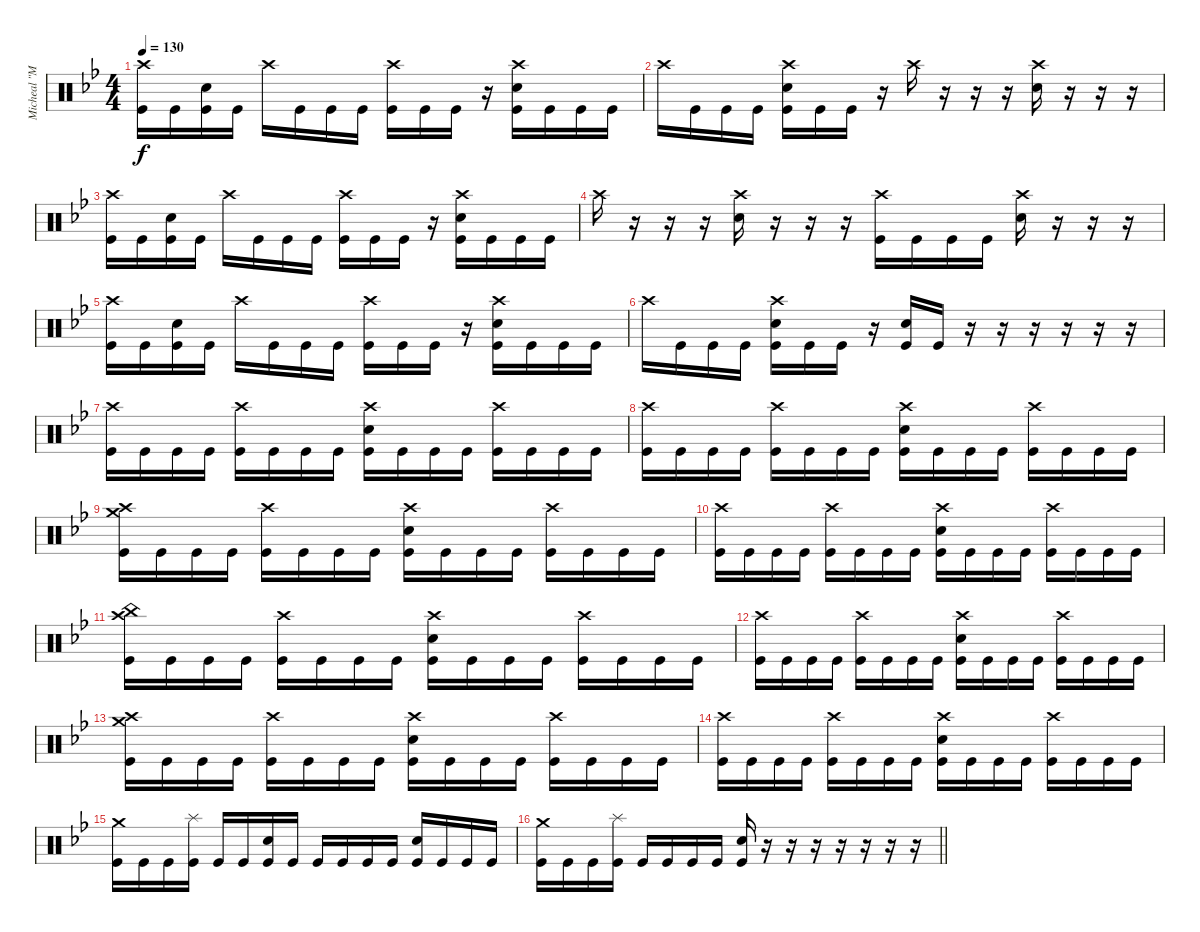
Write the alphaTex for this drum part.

\track ("Micheal \"Moose\" Thomas" "Micheal \"M") {instrument percussion}
\staff {score}
\articulation defaults
\ts (4 4)
\tempo 130
\clef neutral
\ks bb
("Crash high (hit)" "Kick (hit)").16{dy f} "Kick (hit)".16 ("Snare (hit) 2" "Kick (hit)").16 "Kick (hit)".16 "Crash high (hit)".16 "Kick (hit)".16 "Kick (hit)".16 "Kick (hit)".16 ("Crash high (hit)" "Kick (hit)").16 "Kick (hit)".16 "Kick (hit)".16 r.16 ("Crash high (hit)" "Snare (hit) 2" "Kick (hit)").16 "Kick (hit)".16 "Kick (hit)".16 "Kick (hit)".16 |
"Crash high (hit)".16 "Kick (hit)".16 "Kick (hit)".16 "Kick (hit)".16 ("Crash high (hit)" "Snare (hit) 2" "Kick (hit)").16 "Kick (hit)".16 "Kick (hit)".16 r.16 "Crash high (hit)".16 r.16 r.16 r.16 ("Crash high (hit)" "Snare (hit) 2").16 r.16 r.16 r.16 |
("Crash high (hit)" "Kick (hit)").16 "Kick (hit)".16 ("Snare (hit) 2" "Kick (hit)").16 "Kick (hit)".16 "Crash high (hit)".16 "Kick (hit)".16 "Kick (hit)".16 "Kick (hit)".16 ("Crash high (hit)" "Kick (hit)").16 "Kick (hit)".16 "Kick (hit)".16 r.16 ("Crash high (hit)" "Snare (hit) 2" "Kick (hit)").16 "Kick (hit)".16 "Kick (hit)".16 "Kick (hit)".16 |
"Crash high (hit)".16 r.16 r.16 r.16 ("Crash high (hit)" "Snare (hit) 2").16 r.16 r.16 r.16 ("Crash high (hit)" "Kick (hit)").16 "Kick (hit)".16 "Kick (hit)".16 "Kick (hit)".16 ("Crash high (hit)" "Snare (hit) 2").16 r.16 r.16 r.16 |
("Crash high (hit)" "Kick (hit)").16 "Kick (hit)".16 ("Snare (hit) 2" "Kick (hit)").16 "Kick (hit)".16 "Crash high (hit)".16 "Kick (hit)".16 "Kick (hit)".16 "Kick (hit)".16 ("Crash high (hit)" "Kick (hit)").16 "Kick (hit)".16 "Kick (hit)".16 r.16 ("Crash high (hit)" "Snare (hit) 2" "Kick (hit)").16 "Kick (hit)".16 "Kick (hit)".16 "Kick (hit)".16 |
"Crash high (hit)".16 "Kick (hit)".16 "Kick (hit)".16 "Kick (hit)".16 ("Crash high (hit)" "Snare (hit) 2" "Kick (hit)").16 "Kick (hit)".16 "Kick (hit)".16 r.16 ("Snare (hit) 2" "Kick (hit)").16 "Kick (hit)".16 r.16 r.16 r.16 r.16 r.16 r.16 |
("Crash high (hit)" "Kick (hit)").16 "Kick (hit)".16 "Kick (hit)".16 "Kick (hit)".16 ("Crash high (hit)" "Kick (hit)").16 "Kick (hit)".16 "Kick (hit)".16 "Kick (hit)".16 ("Crash high (hit)" "Snare (hit) 2" "Kick (hit)").16 "Kick (hit)".16 "Kick (hit)".16 "Kick (hit)".16 ("Crash high (hit)" "Kick (hit)").16 "Kick (hit)".16 "Kick (hit)".16 "Kick (hit)".16 |
("Crash high (hit)" "Kick (hit)").16 "Kick (hit)".16 "Kick (hit)".16 "Kick (hit)".16 ("Crash high (hit)" "Kick (hit)").16 "Kick (hit)".16 "Kick (hit)".16 "Kick (hit)".16 ("Crash high (hit)" "Snare (hit) 2" "Kick (hit)").16 "Kick (hit)".16 "Kick (hit)".16 "Kick (hit)".16 ("Crash high (hit)" "Kick (hit)").16 "Kick (hit)".16 "Kick (hit)".16 "Kick (hit)".16 |
("Crash high (hit)" "Crash medium (hit)" "Kick (hit)").16 "Kick (hit)".16 "Kick (hit)".16 "Kick (hit)".16 ("Crash high (hit)" "Kick (hit)").16 "Kick (hit)".16 "Kick (hit)".16 "Kick (hit)".16 ("Crash high (hit)" "Snare (hit) 2" "Kick (hit)").16 "Kick (hit)".16 "Kick (hit)".16 "Kick (hit)".16 ("Crash high (hit)" "Kick (hit)").16 "Kick (hit)".16 "Kick (hit)".16 "Kick (hit)".16 |
("Crash high (hit)" "Kick (hit)").16 "Kick (hit)".16 "Kick (hit)".16 "Kick (hit)".16 ("Crash high (hit)" "Kick (hit)").16 "Kick (hit)".16 "Kick (hit)".16 "Kick (hit)".16 ("Crash high (hit)" "Snare (hit) 2" "Kick (hit)").16 "Kick (hit)".16 "Kick (hit)".16 "Kick (hit)".16 ("Crash high (hit)" "Kick (hit)").16 "Kick (hit)".16 "Kick (hit)".16 "Kick (hit)".16 |
("Crash high (hit)" "China (hit)" "Kick (hit)").16 "Kick (hit)".16 "Kick (hit)".16 "Kick (hit)".16 ("Crash high (hit)" "Kick (hit)").16 "Kick (hit)".16 "Kick (hit)".16 "Kick (hit)".16 ("Crash high (hit)" "Snare (hit) 2" "Kick (hit)").16 "Kick (hit)".16 "Kick (hit)".16 "Kick (hit)".16 ("Crash high (hit)" "Kick (hit)").16 "Kick (hit)".16 "Kick (hit)".16 "Kick (hit)".16 |
("Crash high (hit)" "Kick (hit)").16 "Kick (hit)".16 "Kick (hit)".16 "Kick (hit)".16 ("Crash high (hit)" "Kick (hit)").16 "Kick (hit)".16 "Kick (hit)".16 "Kick (hit)".16 ("Crash high (hit)" "Snare (hit) 2" "Kick (hit)").16 "Kick (hit)".16 "Kick (hit)".16 "Kick (hit)".16 ("Crash high (hit)" "Kick (hit)").16 "Kick (hit)".16 "Kick (hit)".16 "Kick (hit)".16 |
("Crash high (hit)" "Crash medium (hit)" "Kick (hit)").16 "Kick (hit)".16 "Kick (hit)".16 "Kick (hit)".16 ("Crash high (hit)" "Kick (hit)").16 "Kick (hit)".16 "Kick (hit)".16 "Kick (hit)".16 ("Crash high (hit)" "Snare (hit) 2" "Kick (hit)").16 "Kick (hit)".16 "Kick (hit)".16 "Kick (hit)".16 ("Crash high (hit)" "Kick (hit)").16 "Kick (hit)".16 "Kick (hit)".16 "Kick (hit)".16 |
("Crash high (hit)" "Kick (hit)").16 "Kick (hit)".16 "Kick (hit)".16 "Kick (hit)".16 ("Crash high (hit)" "Kick (hit)").16 "Kick (hit)".16 "Kick (hit)".16 "Kick (hit)".16 ("Crash high (hit)" "Snare (hit) 2" "Kick (hit)").16 "Kick (hit)".16 "Kick (hit)".16 "Kick (hit)".16 ("Crash high (hit)" "Kick (hit)").16 "Kick (hit)".16 "Kick (hit)".16 "Kick (hit)".16 |
("Crash medium (hit)" "Kick (hit)").16 "Kick (hit)".16 "Kick (hit)".16 ("Splash (hit)" "Kick (hit)").16 "Kick (hit)".16 "Kick (hit)".16 ("Snare (hit) 2" "Kick (hit)").16 "Kick (hit)".16 "Kick (hit)".16 "Kick (hit)".16 "Kick (hit)".16 "Kick (hit)".16 ("Snare (hit) 2" "Kick (hit)").16 "Kick (hit)".16 "Kick (hit)".16 "Kick (hit)".16 |
\barLineRight lightlight
("Crash medium (hit)" "Kick (hit)").16 "Kick (hit)".16 "Kick (hit)".16 ("Splash (hit)" "Kick (hit)").16 "Kick (hit)".16 "Kick (hit)".16 "Kick (hit)".16 "Kick (hit)".16 ("Snare (hit) 2" "Kick (hit)").16 r.16 r.16 r.16 r.16 r.16 r.16 r.16
